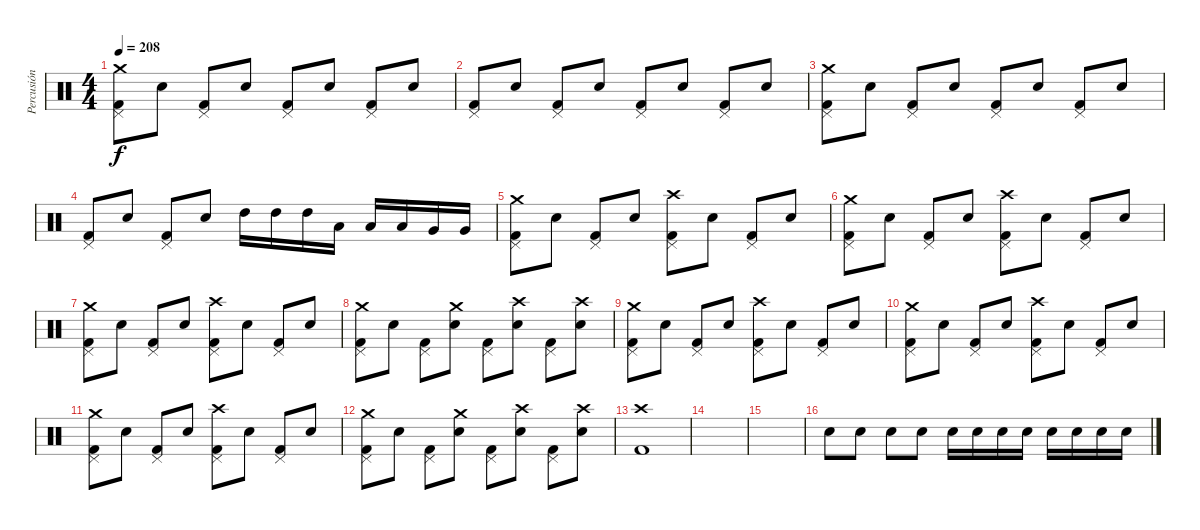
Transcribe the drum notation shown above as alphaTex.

\track ("Percusión" "Percusión") {instrument percussion}
\staff {score}
\articulation defaults
\ts (4 4)
\tempo 208
\clef neutral
\ks c
("Crash medium (hit)" "Pedal Hi-Hat (hit)" "Kick (hit) 2").8{dy f} "Electric Snare (hit)".8 ("Pedal Hi-Hat (hit)" "Kick (hit) 2").8 "Electric Snare (hit)".8 ("Pedal Hi-Hat (hit)" "Kick (hit) 2").8 "Electric Snare (hit)".8 ("Pedal Hi-Hat (hit)" "Kick (hit) 2").8 "Electric Snare (hit)".8 |
("Pedal Hi-Hat (hit)" "Kick (hit) 2").8 "Electric Snare (hit)".8 ("Pedal Hi-Hat (hit)" "Kick (hit) 2").8 "Electric Snare (hit)".8 ("Pedal Hi-Hat (hit)" "Kick (hit) 2").8 "Electric Snare (hit)".8 ("Pedal Hi-Hat (hit)" "Kick (hit) 2").8 "Electric Snare (hit)".8 |
("Crash medium (hit)" "Pedal Hi-Hat (hit)" "Kick (hit) 2").8 "Electric Snare (hit)".8 ("Pedal Hi-Hat (hit)" "Kick (hit) 2").8 "Electric Snare (hit)".8 ("Pedal Hi-Hat (hit)" "Kick (hit) 2").8 "Electric Snare (hit)".8 ("Pedal Hi-Hat (hit)" "Kick (hit) 2").8 "Electric Snare (hit)".8 |
("Pedal Hi-Hat (hit)" "Kick (hit) 2").8 "Electric Snare (hit)".8 ("Pedal Hi-Hat (hit)" "Kick (hit) 2").8 "Electric Snare (hit)".8 "High Tom (hit)".16 "High Tom (hit)".16 "High Tom (hit)".16 "Low Tom (hit)".16 "Low Tom (hit)".16 "Low Tom (hit)".16 "Very Low Tom (hit)".16 "Very Low Tom (hit)".16 |
("Crash medium (hit)" "Pedal Hi-Hat (hit)" "Kick (hit) 2").8 "Electric Snare (hit)".8 ("Pedal Hi-Hat (hit)" "Kick (hit) 2").8 "Electric Snare (hit)".8 ("Crash high (hit)" "Pedal Hi-Hat (hit)" "Kick (hit) 2").8 "Electric Snare (hit)".8 ("Pedal Hi-Hat (hit)" "Kick (hit) 2").8 "Electric Snare (hit)".8 |
("Crash medium (hit)" "Pedal Hi-Hat (hit)" "Kick (hit) 2").8 "Electric Snare (hit)".8 ("Pedal Hi-Hat (hit)" "Kick (hit) 2").8 "Electric Snare (hit)".8 ("Crash high (hit)" "Pedal Hi-Hat (hit)" "Kick (hit) 2").8 "Electric Snare (hit)".8 ("Pedal Hi-Hat (hit)" "Kick (hit) 2").8 "Electric Snare (hit)".8 |
("Crash medium (hit)" "Pedal Hi-Hat (hit)" "Kick (hit) 2").8 "Electric Snare (hit)".8 ("Pedal Hi-Hat (hit)" "Kick (hit) 2").8 "Electric Snare (hit)".8 ("Crash high (hit)" "Pedal Hi-Hat (hit)" "Kick (hit) 2").8 "Electric Snare (hit)".8 ("Pedal Hi-Hat (hit)" "Kick (hit) 2").8 "Electric Snare (hit)".8 |
("Crash medium (hit)" "Pedal Hi-Hat (hit)" "Kick (hit) 2").8 "Electric Snare (hit)".8 ("Pedal Hi-Hat (hit)" "Kick (hit) 2").8 ("Crash medium (hit)" "Electric Snare (hit)").8 ("Pedal Hi-Hat (hit)" "Kick (hit) 2").8 ("Crash high (hit)" "Electric Snare (hit)").8 ("Pedal Hi-Hat (hit)" "Kick (hit) 2").8 ("Crash high (hit)" "Electric Snare (hit)").8 |
("Crash medium (hit)" "Pedal Hi-Hat (hit)" "Kick (hit) 2").8 "Electric Snare (hit)".8 ("Pedal Hi-Hat (hit)" "Kick (hit) 2").8 "Electric Snare (hit)".8 ("Crash high (hit)" "Pedal Hi-Hat (hit)" "Kick (hit) 2").8 "Electric Snare (hit)".8 ("Pedal Hi-Hat (hit)" "Kick (hit) 2").8 "Electric Snare (hit)".8 |
("Crash medium (hit)" "Pedal Hi-Hat (hit)" "Kick (hit) 2").8 "Electric Snare (hit)".8 ("Pedal Hi-Hat (hit)" "Kick (hit) 2").8 "Electric Snare (hit)".8 ("Crash high (hit)" "Pedal Hi-Hat (hit)" "Kick (hit) 2").8 "Electric Snare (hit)".8 ("Pedal Hi-Hat (hit)" "Kick (hit) 2").8 "Electric Snare (hit)".8 |
("Crash medium (hit)" "Pedal Hi-Hat (hit)" "Kick (hit) 2").8 "Electric Snare (hit)".8 ("Pedal Hi-Hat (hit)" "Kick (hit) 2").8 "Electric Snare (hit)".8 ("Crash high (hit)" "Pedal Hi-Hat (hit)" "Kick (hit) 2").8 "Electric Snare (hit)".8 ("Pedal Hi-Hat (hit)" "Kick (hit) 2").8 "Electric Snare (hit)".8 |
("Crash medium (hit)" "Pedal Hi-Hat (hit)" "Kick (hit) 2").8 "Electric Snare (hit)".8 ("Pedal Hi-Hat (hit)" "Kick (hit) 2").8 ("Crash medium (hit)" "Electric Snare (hit)").8 ("Pedal Hi-Hat (hit)" "Kick (hit) 2").8 ("Crash high (hit)" "Electric Snare (hit)").8 ("Pedal Hi-Hat (hit)" "Kick (hit) 2").8 ("Crash high (hit)" "Electric Snare (hit)").8 |
("Crash high (hit)" "Kick (hit) 2").1 |
|
|
"Snare (hit)".8 "Snare (hit)".8 "Snare (hit)".8 "Snare (hit)".8 "Electric Snare (hit)".16 "Electric Snare (hit)".16 "Electric Snare (hit)".16 "Electric Snare (hit)".16 "Electric Snare (hit)".16 "Electric Snare (hit)".16 "Electric Snare (hit)".16 "Electric Snare (hit)".16
